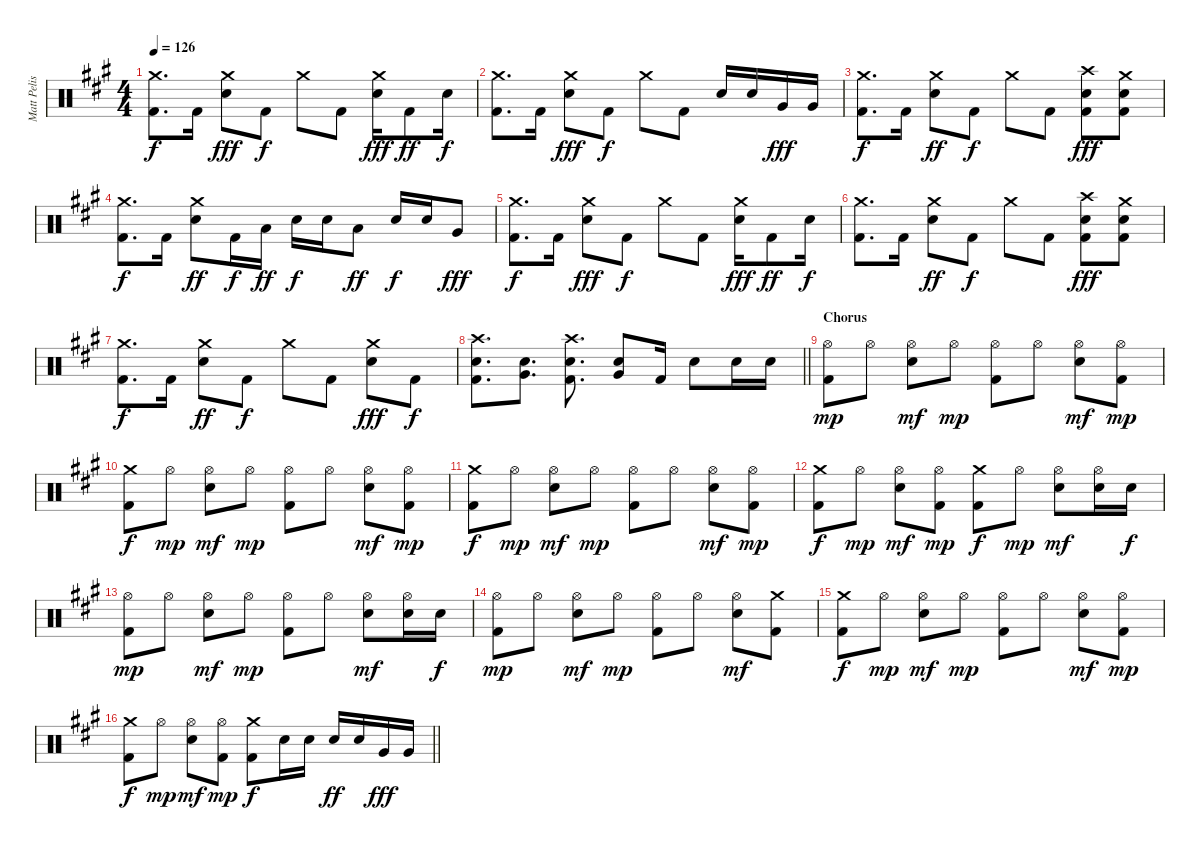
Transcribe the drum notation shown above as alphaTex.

\track ("Matt Pelissier" "Matt Pelis") {instrument percussion}
\staff {score}
\articulation defaults
\ts (4 4)
\tempo 126
\clef neutral
\ks a
("Crash medium (hit)" "Kick (hit) 2").8{d dy f} "Kick (hit) 2".16 ("Crash medium (hit)" "Snare (hit) 2").8{dy fff} "Kick (hit) 2".8{dy f} "Crash medium (hit)".8 "Kick (hit) 2".8 ("Crash medium (hit)" "Snare (hit) 2").16{dy fff} "Kick (hit) 2".8{dy ff} "Snare (hit) 2".16{dy f} |
("Crash medium (hit)" "Kick (hit) 2").8{d} "Kick (hit) 2".16 ("Crash medium (hit)" "Snare (hit) 2").8{dy fff} "Kick (hit) 2".8{dy f} "Crash medium (hit)".8 "Kick (hit) 2".8 "Snare (hit) 2".16 "Snare (hit) 2".16 "Very Low Tom (hit)".16{dy fff} "Very Low Tom (hit)".16 |
("Crash medium (hit)" "Kick (hit) 2").8{d dy f} "Kick (hit) 2".16 ("Crash medium (hit)" "Snare (hit) 2").8{dy ff} "Kick (hit) 2".8{dy f} "Crash medium (hit)".8 "Kick (hit) 2".8 ("Crash high (hit)" "Snare (hit) 2" "Kick (hit) 2").8{dy fff} ("Crash medium (hit)" "Snare (hit) 2" "Kick (hit) 2").8 |
("Crash medium (hit)" "Kick (hit) 2").8{d dy f} "Kick (hit) 2".16 ("Crash medium (hit)" "Snare (hit) 2").8{dy ff} "Kick (hit) 2".16{dy f} "Low Tom (hit)".16{dy ff} "Snare (hit) 2".16{dy f} "Snare (hit) 2".16 "Low Tom (hit)".8{dy ff} "Snare (hit) 2".16{dy f} "Snare (hit) 2".16 "Very Low Tom (hit)".8{dy fff} |
("Crash medium (hit)" "Kick (hit) 2").8{d dy f} "Kick (hit) 2".16 ("Crash medium (hit)" "Snare (hit) 2").8{dy fff} "Kick (hit) 2".8{dy f} "Crash medium (hit)".8 "Kick (hit) 2".8 ("Crash medium (hit)" "Snare (hit) 2").16{dy fff} "Kick (hit) 2".8{dy ff} "Snare (hit) 2".16{dy f} |
("Crash medium (hit)" "Kick (hit) 2").8{d} "Kick (hit) 2".16 ("Crash medium (hit)" "Snare (hit) 2").8{dy ff} "Kick (hit) 2".8{dy f} "Crash medium (hit)".8 "Kick (hit) 2".8 ("Crash high (hit)" "Snare (hit) 2" "Kick (hit) 2").8{dy fff} ("Crash medium (hit)" "Snare (hit) 2" "Kick (hit) 2").8 |
("Crash medium (hit)" "Kick (hit) 2").8{d dy f} "Kick (hit) 2".16 ("Crash medium (hit)" "Snare (hit) 2").8{dy ff} "Kick (hit) 2".8{dy f} "Crash medium (hit)".8 "Kick (hit) 2".8 ("Crash medium (hit)" "Snare (hit) 2").8{dy fff} "Kick (hit) 2".8{dy f} |
\barLineRight lightlight
("Crash high (hit)" "Snare (hit) 2" "Kick (hit) 2").8{d} ("Snare (hit) 2" "Very Low Tom (hit)").8{d} ("Crash high (hit)" "Snare (hit) 2" "Kick (hit) 2").8{d} ("Snare (hit) 2" "Very Low Tom (hit)").8 "Kick (hit) 2".16 "Snare (hit) 2".8 "Snare (hit) 2".16 "Snare (hit) 2".16 |
\section ("" "Chorus")
("Hi-Hat (open)" "Kick (hit) 2").8{dy mp} "Hi-Hat (open)".8 ("Hi-Hat (open)" "Snare (hit) 2").8{dy mf} "Hi-Hat (open)".8{dy mp} ("Hi-Hat (open)" "Kick (hit) 2").8 "Hi-Hat (open)".8 ("Hi-Hat (open)" "Snare (hit) 2").8{dy mf} ("Hi-Hat (open)" "Kick (hit) 2").8{dy mp} |
("Crash medium (hit)" "Kick (hit) 2").8{dy f} "Hi-Hat (open)".8{dy mp} ("Hi-Hat (open)" "Snare (hit) 2").8{dy mf} "Hi-Hat (open)".8{dy mp} ("Hi-Hat (open)" "Kick (hit) 2").8 "Hi-Hat (open)".8 ("Hi-Hat (open)" "Snare (hit) 2").8{dy mf} ("Hi-Hat (open)" "Kick (hit) 2").8{dy mp} |
("Crash medium (hit)" "Kick (hit) 2").8{dy f} "Hi-Hat (open)".8{dy mp} ("Hi-Hat (open)" "Snare (hit) 2").8{dy mf} "Hi-Hat (open)".8{dy mp} ("Hi-Hat (open)" "Kick (hit) 2").8 "Hi-Hat (open)".8 ("Hi-Hat (open)" "Snare (hit) 2").8{dy mf} ("Hi-Hat (open)" "Kick (hit) 2").8{dy mp} |
("Crash medium (hit)" "Kick (hit) 2").8{dy f} "Hi-Hat (open)".8{dy mp} ("Hi-Hat (open)" "Snare (hit) 2").8{dy mf} ("Hi-Hat (open)" "Kick (hit) 2").8{dy mp} ("Crash medium (hit)" "Kick (hit) 2").8{dy f} "Hi-Hat (open)".8{dy mp} ("Hi-Hat (open)" "Snare (hit) 2").8{dy mf} ("Hi-Hat (open)" "Snare (hit) 2").16 "Snare (hit) 2".16{dy f} |
("Hi-Hat (open)" "Kick (hit) 2").8{dy mp} "Hi-Hat (open)".8 ("Hi-Hat (open)" "Snare (hit) 2").8{dy mf} "Hi-Hat (open)".8{dy mp} ("Hi-Hat (open)" "Kick (hit) 2").8 "Hi-Hat (open)".8 ("Hi-Hat (open)" "Snare (hit) 2").8{dy mf} ("Hi-Hat (open)" "Snare (hit) 2").16 "Snare (hit) 2".16{dy f} |
("Hi-Hat (open)" "Kick (hit) 2").8{dy mp} "Hi-Hat (open)".8 ("Hi-Hat (open)" "Snare (hit) 2").8{dy mf} "Hi-Hat (open)".8{dy mp} ("Hi-Hat (open)" "Kick (hit) 2").8 "Hi-Hat (open)".8 ("Hi-Hat (open)" "Snare (hit) 2").8{dy mf} ("Crash medium (hit)" "Kick (hit) 2").8 |
("Crash medium (hit)" "Kick (hit) 2").8{dy f} "Hi-Hat (open)".8{dy mp} ("Hi-Hat (open)" "Snare (hit) 2").8{dy mf} "Hi-Hat (open)".8{dy mp} ("Hi-Hat (open)" "Kick (hit) 2").8 "Hi-Hat (open)".8 ("Hi-Hat (open)" "Snare (hit) 2").8{dy mf} ("Hi-Hat (open)" "Kick (hit) 2").8{dy mp} |
\barLineRight lightlight
("Crash medium (hit)" "Kick (hit) 2").8{dy f} "Hi-Hat (open)".8{dy mp} ("Hi-Hat (open)" "Snare (hit) 2").8{dy mf} ("Hi-Hat (open)" "Kick (hit) 2").8{dy mp} ("Crash medium (hit)" "Kick (hit) 2").8{dy f} "Snare (hit) 2".16 "Snare (hit) 2".16 "Snare (hit) 2".16{dy ff} "Snare (hit) 2".16 "Very Low Tom (hit)".16{dy fff} "Very Low Tom (hit)".16
